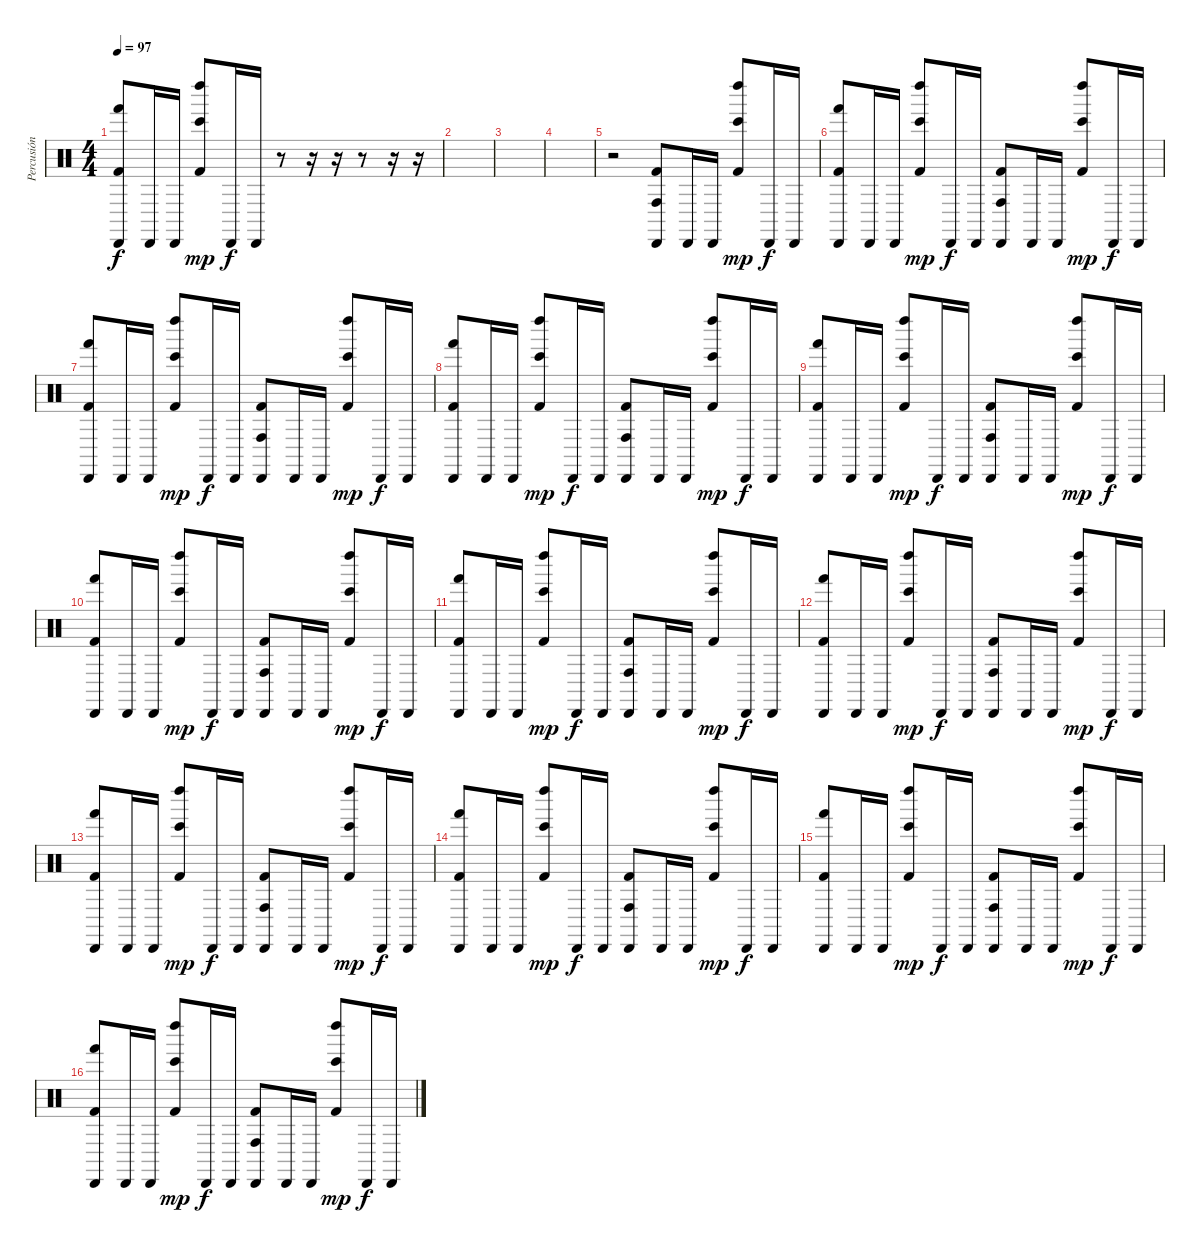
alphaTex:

\track ("Percusión" "Percusión") {instrument percussion}
\staff {score}
\articulation defaults
\ts (4 4)
\tempo 97
\clef neutral
\ks c
("Hand (hit)" "Cabasa (hit)" "Kick (hit) 2").8{dy f} "Cabasa (hit)".16 "Cabasa (hit)".16 ("Bongo High (hit)" "Kick (hit) 2" "Left Maraca (hit)").8{dy mp} "Cabasa (hit)".16{dy f} "Cabasa (hit)".16 r.8 r.16 r.16 r.8 r.16 r.16 |
|
|
|
r.2 ("Conga high (hit)" "Cabasa (hit)" "Kick (hit) 2").8 "Cabasa (hit)".16 "Cabasa (hit)".16 ("Bongo High (hit)" "Kick (hit) 2" "Left Maraca (hit)").8{dy mp} "Cabasa (hit)".16{dy f} "Cabasa (hit)".16 |
("Hand (hit)" "Cabasa (hit)" "Kick (hit) 2").8 "Cabasa (hit)".16 "Cabasa (hit)".16 ("Bongo High (hit)" "Kick (hit) 2" "Left Maraca (hit)").8{dy mp} "Cabasa (hit)".16{dy f} "Cabasa (hit)".16 ("Conga high (hit)" "Cabasa (hit)" "Kick (hit) 2").8 "Cabasa (hit)".16 "Cabasa (hit)".16 ("Bongo High (hit)" "Kick (hit) 2" "Left Maraca (hit)").8{dy mp} "Cabasa (hit)".16{dy f} "Cabasa (hit)".16 |
("Hand (hit)" "Cabasa (hit)" "Kick (hit) 2").8 "Cabasa (hit)".16 "Cabasa (hit)".16 ("Bongo High (hit)" "Kick (hit) 2" "Left Maraca (hit)").8{dy mp} "Cabasa (hit)".16{dy f} "Cabasa (hit)".16 ("Conga high (hit)" "Cabasa (hit)" "Kick (hit) 2").8 "Cabasa (hit)".16 "Cabasa (hit)".16 ("Bongo High (hit)" "Kick (hit) 2" "Left Maraca (hit)").8{dy mp} "Cabasa (hit)".16{dy f} "Cabasa (hit)".16 |
("Hand (hit)" "Cabasa (hit)" "Kick (hit) 2").8 "Cabasa (hit)".16 "Cabasa (hit)".16 ("Bongo High (hit)" "Kick (hit) 2" "Left Maraca (hit)").8{dy mp} "Cabasa (hit)".16{dy f} "Cabasa (hit)".16 ("Conga high (hit)" "Cabasa (hit)" "Kick (hit) 2").8 "Cabasa (hit)".16 "Cabasa (hit)".16 ("Bongo High (hit)" "Kick (hit) 2" "Left Maraca (hit)").8{dy mp} "Cabasa (hit)".16{dy f} "Cabasa (hit)".16 |
("Hand (hit)" "Cabasa (hit)" "Kick (hit) 2").8 "Cabasa (hit)".16 "Cabasa (hit)".16 ("Bongo High (hit)" "Kick (hit) 2" "Left Maraca (hit)").8{dy mp} "Cabasa (hit)".16{dy f} "Cabasa (hit)".16 ("Conga high (hit)" "Cabasa (hit)" "Kick (hit) 2").8 "Cabasa (hit)".16 "Cabasa (hit)".16 ("Bongo High (hit)" "Kick (hit) 2" "Left Maraca (hit)").8{dy mp} "Cabasa (hit)".16{dy f} "Cabasa (hit)".16 |
("Hand (hit)" "Cabasa (hit)" "Kick (hit) 2").8 "Cabasa (hit)".16 "Cabasa (hit)".16 ("Bongo High (hit)" "Kick (hit) 2" "Left Maraca (hit)").8{dy mp} "Cabasa (hit)".16{dy f} "Cabasa (hit)".16 ("Conga high (hit)" "Cabasa (hit)" "Kick (hit) 2").8 "Cabasa (hit)".16 "Cabasa (hit)".16 ("Bongo High (hit)" "Kick (hit) 2" "Left Maraca (hit)").8{dy mp} "Cabasa (hit)".16{dy f} "Cabasa (hit)".16 |
("Hand (hit)" "Cabasa (hit)" "Kick (hit) 2").8 "Cabasa (hit)".16 "Cabasa (hit)".16 ("Bongo High (hit)" "Kick (hit) 2" "Left Maraca (hit)").8{dy mp} "Cabasa (hit)".16{dy f} "Cabasa (hit)".16 ("Conga high (hit)" "Cabasa (hit)" "Kick (hit) 2").8 "Cabasa (hit)".16 "Cabasa (hit)".16 ("Bongo High (hit)" "Kick (hit) 2" "Left Maraca (hit)").8{dy mp} "Cabasa (hit)".16{dy f} "Cabasa (hit)".16 |
("Hand (hit)" "Cabasa (hit)" "Kick (hit) 2").8 "Cabasa (hit)".16 "Cabasa (hit)".16 ("Bongo High (hit)" "Kick (hit) 2" "Left Maraca (hit)").8{dy mp} "Cabasa (hit)".16{dy f} "Cabasa (hit)".16 ("Conga high (hit)" "Cabasa (hit)" "Kick (hit) 2").8 "Cabasa (hit)".16 "Cabasa (hit)".16 ("Bongo High (hit)" "Kick (hit) 2" "Left Maraca (hit)").8{dy mp} "Cabasa (hit)".16{dy f} "Cabasa (hit)".16 |
("Hand (hit)" "Cabasa (hit)" "Kick (hit) 2").8 "Cabasa (hit)".16 "Cabasa (hit)".16 ("Bongo High (hit)" "Kick (hit) 2" "Left Maraca (hit)").8{dy mp} "Cabasa (hit)".16{dy f} "Cabasa (hit)".16 ("Conga high (hit)" "Cabasa (hit)" "Kick (hit) 2").8 "Cabasa (hit)".16 "Cabasa (hit)".16 ("Bongo High (hit)" "Kick (hit) 2" "Left Maraca (hit)").8{dy mp} "Cabasa (hit)".16{dy f} "Cabasa (hit)".16 |
("Hand (hit)" "Cabasa (hit)" "Kick (hit) 2").8 "Cabasa (hit)".16 "Cabasa (hit)".16 ("Bongo High (hit)" "Kick (hit) 2" "Left Maraca (hit)").8{dy mp} "Cabasa (hit)".16{dy f} "Cabasa (hit)".16 ("Conga high (hit)" "Cabasa (hit)" "Kick (hit) 2").8 "Cabasa (hit)".16 "Cabasa (hit)".16 ("Bongo High (hit)" "Kick (hit) 2" "Left Maraca (hit)").8{dy mp} "Cabasa (hit)".16{dy f} "Cabasa (hit)".16 |
("Hand (hit)" "Cabasa (hit)" "Kick (hit) 2").8 "Cabasa (hit)".16 "Cabasa (hit)".16 ("Bongo High (hit)" "Kick (hit) 2" "Left Maraca (hit)").8{dy mp} "Cabasa (hit)".16{dy f} "Cabasa (hit)".16 ("Conga high (hit)" "Cabasa (hit)" "Kick (hit) 2").8 "Cabasa (hit)".16 "Cabasa (hit)".16 ("Bongo High (hit)" "Kick (hit) 2" "Left Maraca (hit)").8{dy mp} "Cabasa (hit)".16{dy f} "Cabasa (hit)".16 |
("Hand (hit)" "Cabasa (hit)" "Kick (hit) 2").8 "Cabasa (hit)".16 "Cabasa (hit)".16 ("Bongo High (hit)" "Kick (hit) 2" "Left Maraca (hit)").8{dy mp} "Cabasa (hit)".16{dy f} "Cabasa (hit)".16 ("Conga high (hit)" "Cabasa (hit)" "Kick (hit) 2").8 "Cabasa (hit)".16 "Cabasa (hit)".16 ("Bongo High (hit)" "Kick (hit) 2" "Left Maraca (hit)").8{dy mp} "Cabasa (hit)".16{dy f} "Cabasa (hit)".16
